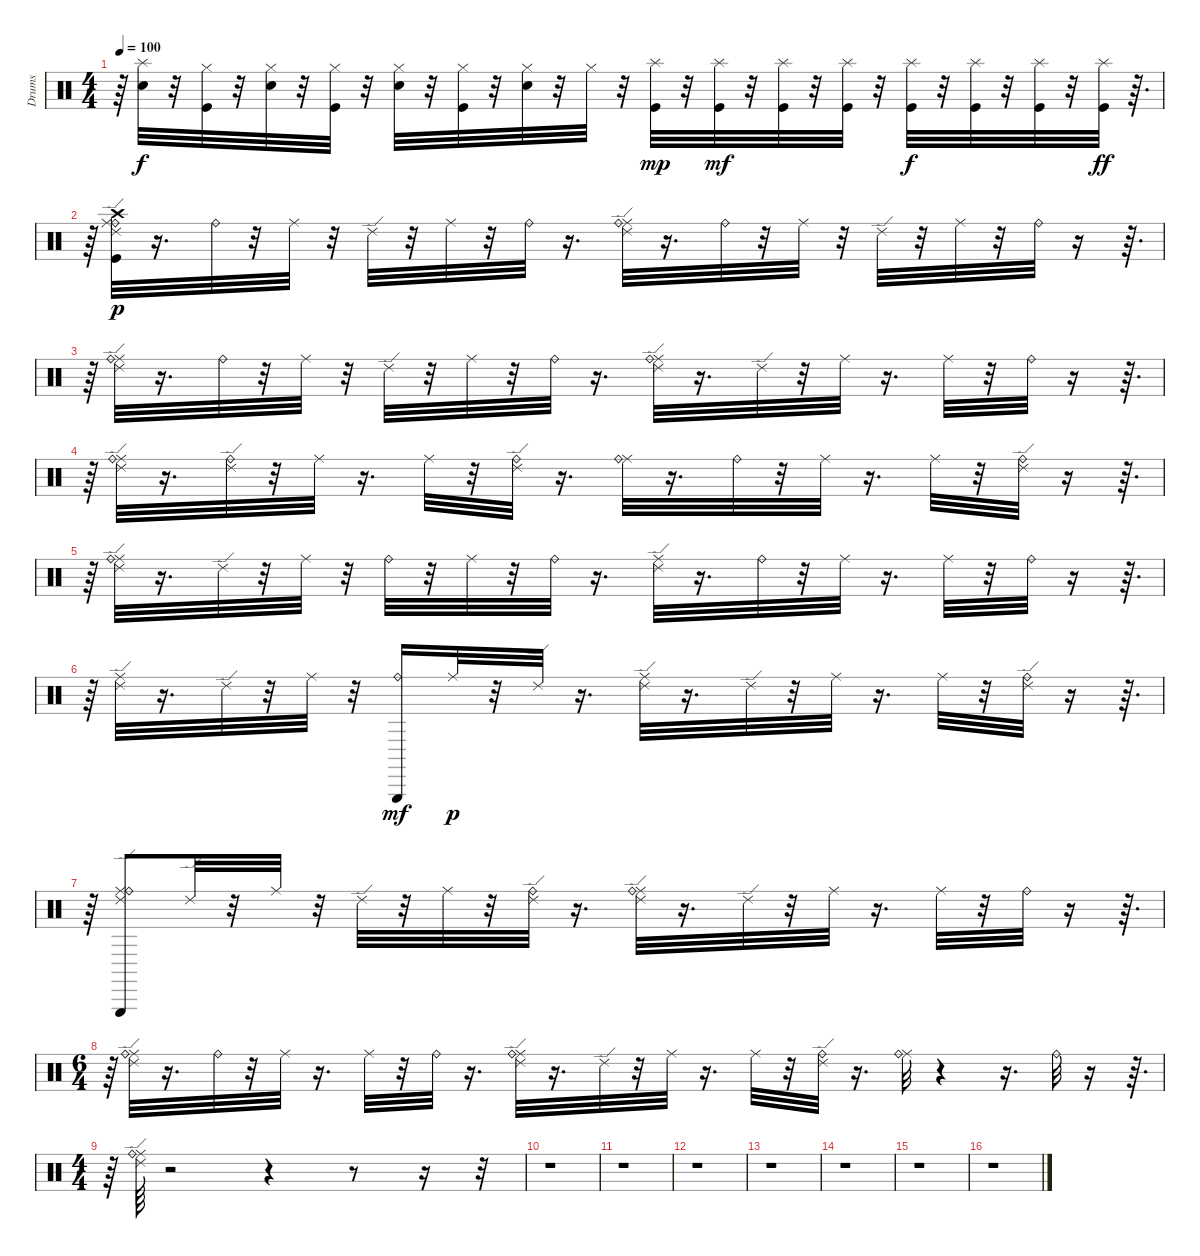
\track ("Drums" "Drums") {instrument percussion}
\staff {score}
\articulation defaults
\ts (4 4)
\tempo 100
\clef neutral
\ks c
r.64{dy f} ("Snare (hit) 2" "Splash (hit)").32 r.32 ("Kick (hit)" "Hi-Hat (closed)").32 r.32 ("Snare (hit) 2" "Hi-Hat (closed)").32 r.32 ("Kick (hit)" "Hi-Hat (closed)").32 r.32 ("Snare (hit) 2" "Hi-Hat (closed)").32 r.32 ("Kick (hit)" "Hi-Hat (closed)").32 r.32 ("Snare (hit) 2" "Hi-Hat (closed)").32 r.32 "Hi-Hat (closed)".32 r.32 ("Kick (hit)" "Splash (hit)").32{dy mp} r.32 ("Kick (hit)" "Splash (hit)").32{dy mf} r.32 ("Kick (hit)" "Splash (hit)").32 r.32 ("Kick (hit)" "Splash (hit)").32 r.32 ("Kick (hit)" "Splash (hit)").32{dy f} r.32 ("Kick (hit)" "Splash (hit)").32 r.32 ("Kick (hit)" "Splash (hit)").32 r.32 ("Kick (hit)" "Splash (hit)").32{dy ff} r.64{d} |
r.64 ("Kick (hit)" "Crash high (hit)" "Ride (edge) 2" "Ride (bell)" "Ride (middle)").32{dy p} r.16{d} "Ride (bell)".32 r.32 "Ride (middle)".32 r.32 "Ride (edge) 2".32 r.32 "Ride (middle)".32 r.32 "Ride (bell)".32 r.16{d} ("Ride (middle)" "Ride (edge) 2" "Ride (bell)").32 r.16{d} "Ride (bell)".32 r.32 "Ride (middle)".32 r.32 "Ride (edge) 2".32 r.32 "Ride (middle)".32 r.32 "Ride (bell)".32 r.16 r.64{d} |
r.64 ("Ride (middle)" "Ride (edge) 2" "Ride (bell)").32 r.16{d} "Ride (bell)".32 r.32 "Ride (middle)".32 r.32 "Ride (edge) 2".32 r.32 "Ride (middle)".32 r.32 "Ride (bell)".32 r.16{d} ("Ride (middle)" "Ride (edge) 2" "Ride (bell)").32 r.16{d} "Ride (edge) 2".32 r.32 "Ride (middle)".32 r.16{d} "Ride (middle)".32 r.32 "Ride (bell)".32 r.16 r.64{d} |
r.64 ("Ride (middle)" "Ride (edge) 2" "Ride (bell)").32 r.16{d} ("Ride (edge) 2" "Ride (bell)").32 r.32 "Ride (middle)".32 r.16{d} "Ride (middle)".32 r.32 ("Ride (edge) 2" "Ride (bell)").32 r.16{d} ("Ride (middle)" "Ride (bell)").32 r.16{d} "Ride (bell)".32 r.32 "Ride (middle)".32 r.16{d} "Ride (middle)".32 r.32 ("Ride (bell)" "Ride (edge) 2").32 r.16 r.64{d} |
r.64 ("Ride (middle)" "Ride (edge) 2" "Ride (bell)").32 r.16{d} "Ride (edge) 2".32 r.32 "Ride (middle)".32 r.32 "Ride (bell)".32 r.32 "Ride (middle)".32 r.32 "Ride (bell)".32 r.16{d} ("Ride (middle)" "Ride (edge) 2").32 r.16{d} "Ride (bell)".32 r.32 "Ride (middle)".32 r.16{d} "Ride (middle)".32 r.32 "Ride (bell)".32 r.16 r.64{d} |
r.64 ("Ride (middle)" "Ride (edge) 2").32 r.16{d} "Ride (edge) 2".32 r.32 "Ride (middle)".32 r.32 ("Ride (bell)" "Triangle (hit)").16{dy mf} "Ride (middle)".32{dy p} r.32 "Ride (edge) 2".32 r.16{d} ("Ride (middle)" "Ride (edge) 2").32 r.16{d} "Ride (edge) 2".32 r.32 "Ride (middle)".32 r.16{d} "Ride (middle)".32 r.32 ("Ride (bell)" "Ride (edge) 2").32 r.16 r.64{d} |
r.64 ("Ride (middle)" "Ride (bell)" "Ride (edge) 2" "Triangle (hit)").8 "Ride (edge) 2".32 r.32 "Ride (middle)".32 r.32 "Ride (edge) 2".32 r.32 "Ride (middle)".32 r.32 ("Ride (bell)" "Ride (edge) 2").32 r.16{d} ("Ride (middle)" "Ride (edge) 2" "Ride (bell)").32 r.16{d} "Ride (edge) 2".32 r.32 "Ride (middle)".32 r.16{d} "Ride (middle)".32 r.32 "Ride (bell)".32 r.16 r.64{d} |
\ts (6 4)
r.64 ("Ride (middle)" "Ride (bell)" "Ride (edge) 2").32 r.16{d} "Ride (bell)".32 r.32 "Ride (middle)".32 r.16{d} "Ride (middle)".32 r.32 "Ride (bell)".32 r.16{d} ("Ride (middle)" "Ride (edge) 2" "Ride (bell)").32 r.16{d} "Ride (edge) 2".32 r.32 "Ride (middle)".32 r.16{d} "Ride (middle)".32 r.32 ("Ride (edge) 2" "Ride (bell)").32 r.16{d} ("Ride (middle)" "Ride (bell)").32 r.4 r.16{d} "Ride (bell)".32 r.16 r.64{d} |
\ts (4 4)
r.64 ("Ride (middle)" "Ride (edge) 2" "Ride (bell)").64 r.2 r.4 r.8 r.16 r.32 |
r.1 |
r.1 |
r.1 |
r.1 |
r.1 |
r.1 |
r.1
